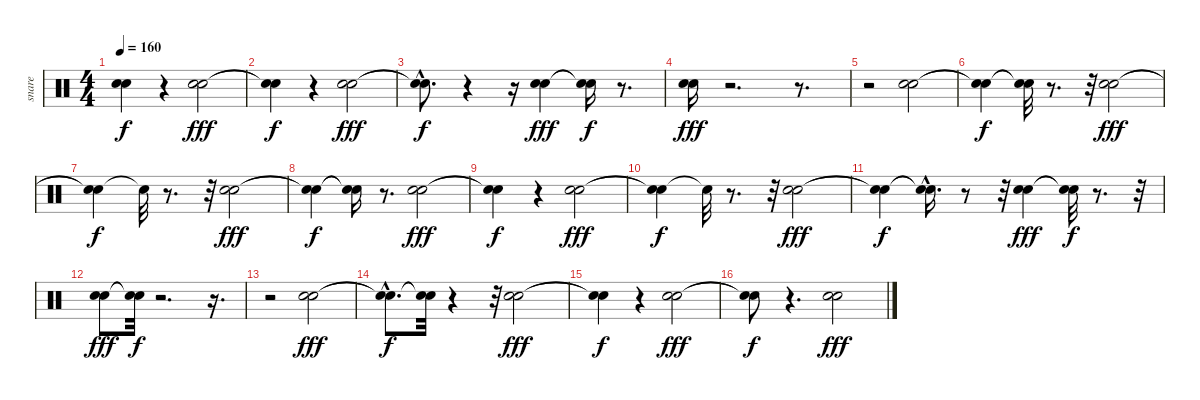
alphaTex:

\track ("snare" "snare") {instrument percussion}
\staff {score}
\articulation defaults
\ts (4 4)
\tempo 160
\clef neutral
\ks c
("Snare (hit)"{t} "Snare (hit)"{t}).4{dy f} r.4 ("Snare (hit) 2" "Electric Snare (hit)").2{dy fff} |
("Snare (hit)"{t} "Snare (hit)"{t}).4{dy f} r.4 ("Electric Snare (hit)" "Snare (hit) 2").2{dy fff} |
("Snare (hit)"{t} "Snare (hit)"{hac t}).8{d dy f} r.4 r.16 ("Snare (hit) 2" "Electric Snare (hit)").4{dy fff} ("Snare (hit)"{t} "Snare (hit)"{t}).16{dy f} r.8{d} |
("Electric Snare (hit)" "Snare (hit) 2").16{dy fff} r.2{d} r.8{d} |
r.2 ("Electric Snare (hit)" "Snare (hit) 2").2 |
("Snare (hit)"{t} "Snare (hit)"{t}).4{dy f} ("Snare (hit)"{t} "Snare (hit)"{t}).32 r.8{d} r.32 ("Snare (hit) 2" "Electric Snare (hit)").2{dy fff} |
("Snare (hit)"{t} "Snare (hit)"{t}).4{dy f} "Snare (hit)"{t}.32 r.8{d} r.32 ("Snare (hit) 2" "Electric Snare (hit)").2{dy fff} |
("Snare (hit)"{t} "Snare (hit)"{t}).4{dy f} ("Snare (hit)"{t} "Snare (hit)"{t}).16 r.8{d} ("Snare (hit) 2" "Electric Snare (hit)").2{dy fff} |
("Snare (hit)"{t} "Snare (hit)"{t}).4{dy f} r.4 ("Snare (hit) 2" "Electric Snare (hit)").2{dy fff} |
("Snare (hit)"{t} "Snare (hit)"{t}).4{dy f} "Snare (hit)"{t}.32 r.8{d} r.32 ("Electric Snare (hit)" "Snare (hit) 2").2{dy fff} |
("Snare (hit)"{t} "Snare (hit)"{t}).4{dy f} ("Snare (hit)"{t} "Snare (hit)"{hac t}).16{d} r.8 r.32 ("Snare (hit) 2" "Electric Snare (hit)").4{dy fff} ("Snare (hit)"{t} "Snare (hit)"{t}).32{dy f} r.8{d} r.32 |
("Electric Snare (hit)" "Snare (hit) 2").8{dy fff} ("Snare (hit)"{t} "Snare (hit)"{t}).32{dy f} r.2{d} r.16{d} |
r.2 ("Electric Snare (hit)" "Snare (hit) 2").2{dy fff} |
("Snare (hit)"{hac t} "Snare (hit)"{hac t}).8{d dy f} ("Snare (hit)"{t} "Snare (hit)"{t}).32 r.4 r.32 ("Snare (hit) 2" "Electric Snare (hit)").2{dy fff} |
("Snare (hit)"{t} "Snare (hit)"{t}).4{dy f} r.4 ("Snare (hit) 2" "Electric Snare (hit)").2{dy fff} |
("Snare (hit)"{t} "Snare (hit)"{t}).8{dy f} r.4{d} ("Snare (hit) 2" "Electric Snare (hit)").2{dy fff}
